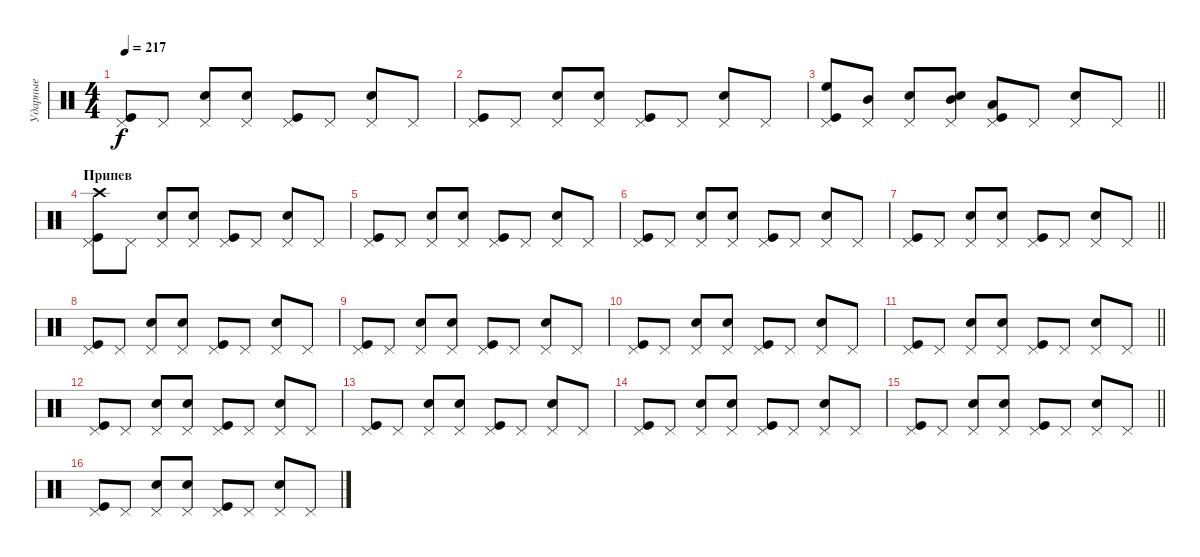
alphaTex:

\track ("Ударные" "Ударные") {instrument percussion}
\staff {score}
\articulation defaults
\ts (4 4)
\tempo 217
\clef neutral
\ks c
("Pedal Hi-Hat (hit)" "Kick (hit)").8{dy f} "Pedal Hi-Hat (hit)".8 ("Pedal Hi-Hat (hit)" "Snare (hit) 2").8 ("Pedal Hi-Hat (hit)" "Snare (hit) 2").8 ("Pedal Hi-Hat (hit)" "Kick (hit)").8 "Pedal Hi-Hat (hit)".8 ("Pedal Hi-Hat (hit)" "Snare (hit) 2").8 "Pedal Hi-Hat (hit)".8 |
("Pedal Hi-Hat (hit)" "Kick (hit)").8 "Pedal Hi-Hat (hit)".8 ("Pedal Hi-Hat (hit)" "Snare (hit) 2").8 ("Pedal Hi-Hat (hit)" "Snare (hit) 2").8 ("Pedal Hi-Hat (hit)" "Kick (hit)").8 "Pedal Hi-Hat (hit)".8 ("Pedal Hi-Hat (hit)" "Snare (hit) 2").8 "Pedal Hi-Hat (hit)".8 |
\barLineRight lightlight
("Pedal Hi-Hat (hit)" "Kick (hit)" "High Floor Tom (hit)").8 ("Pedal Hi-Hat (hit)" "Mid Tom (hit)").8 ("Pedal Hi-Hat (hit)" "Snare (hit) 2").8 ("Pedal Hi-Hat (hit)" "Snare (hit) 2" "Mid Tom (hit)").8 ("Pedal Hi-Hat (hit)" "Kick (hit)" "Low Tom (hit)").8 "Pedal Hi-Hat (hit)".8 ("Pedal Hi-Hat (hit)" "Snare (hit) 2").8 "Pedal Hi-Hat (hit)".8 |
\section ("" "Припев")
("Pedal Hi-Hat (hit)" "Kick (hit)" "Crash high (hit)").8 "Pedal Hi-Hat (hit)".8 ("Pedal Hi-Hat (hit)" "Snare (hit) 2").8 ("Pedal Hi-Hat (hit)" "Snare (hit) 2").8 ("Pedal Hi-Hat (hit)" "Kick (hit)").8 "Pedal Hi-Hat (hit)".8 ("Pedal Hi-Hat (hit)" "Snare (hit) 2").8 "Pedal Hi-Hat (hit)".8 |
("Pedal Hi-Hat (hit)" "Kick (hit)").8 "Pedal Hi-Hat (hit)".8 ("Pedal Hi-Hat (hit)" "Snare (hit) 2").8 ("Pedal Hi-Hat (hit)" "Snare (hit) 2").8 ("Pedal Hi-Hat (hit)" "Kick (hit)").8 "Pedal Hi-Hat (hit)".8 ("Pedal Hi-Hat (hit)" "Snare (hit) 2").8 "Pedal Hi-Hat (hit)".8 |
("Pedal Hi-Hat (hit)" "Kick (hit)").8 "Pedal Hi-Hat (hit)".8 ("Pedal Hi-Hat (hit)" "Snare (hit) 2").8 ("Pedal Hi-Hat (hit)" "Snare (hit) 2").8 ("Pedal Hi-Hat (hit)" "Kick (hit)").8 "Pedal Hi-Hat (hit)".8 ("Pedal Hi-Hat (hit)" "Snare (hit) 2").8 "Pedal Hi-Hat (hit)".8 |
\barLineRight lightlight
("Pedal Hi-Hat (hit)" "Kick (hit)").8 "Pedal Hi-Hat (hit)".8 ("Pedal Hi-Hat (hit)" "Snare (hit) 2").8 ("Pedal Hi-Hat (hit)" "Snare (hit) 2").8 ("Pedal Hi-Hat (hit)" "Kick (hit)").8 "Pedal Hi-Hat (hit)".8 ("Pedal Hi-Hat (hit)" "Snare (hit) 2").8 "Pedal Hi-Hat (hit)".8 |
("Pedal Hi-Hat (hit)" "Kick (hit)").8 "Pedal Hi-Hat (hit)".8 ("Pedal Hi-Hat (hit)" "Snare (hit) 2").8 ("Pedal Hi-Hat (hit)" "Snare (hit) 2").8 ("Pedal Hi-Hat (hit)" "Kick (hit)").8 "Pedal Hi-Hat (hit)".8 ("Pedal Hi-Hat (hit)" "Snare (hit) 2").8 "Pedal Hi-Hat (hit)".8 |
("Pedal Hi-Hat (hit)" "Kick (hit)").8 "Pedal Hi-Hat (hit)".8 ("Pedal Hi-Hat (hit)" "Snare (hit) 2").8 ("Pedal Hi-Hat (hit)" "Snare (hit) 2").8 ("Pedal Hi-Hat (hit)" "Kick (hit)").8 "Pedal Hi-Hat (hit)".8 ("Pedal Hi-Hat (hit)" "Snare (hit) 2").8 "Pedal Hi-Hat (hit)".8 |
("Pedal Hi-Hat (hit)" "Kick (hit)").8 "Pedal Hi-Hat (hit)".8 ("Pedal Hi-Hat (hit)" "Snare (hit) 2").8 ("Pedal Hi-Hat (hit)" "Snare (hit) 2").8 ("Pedal Hi-Hat (hit)" "Kick (hit)").8 "Pedal Hi-Hat (hit)".8 ("Pedal Hi-Hat (hit)" "Snare (hit) 2").8 "Pedal Hi-Hat (hit)".8 |
\barLineRight lightlight
("Pedal Hi-Hat (hit)" "Kick (hit)").8 "Pedal Hi-Hat (hit)".8 ("Pedal Hi-Hat (hit)" "Snare (hit) 2").8 ("Pedal Hi-Hat (hit)" "Snare (hit) 2").8 ("Pedal Hi-Hat (hit)" "Kick (hit)").8 "Pedal Hi-Hat (hit)".8 ("Pedal Hi-Hat (hit)" "Snare (hit) 2").8 "Pedal Hi-Hat (hit)".8 |
("Pedal Hi-Hat (hit)" "Kick (hit)").8 "Pedal Hi-Hat (hit)".8 ("Pedal Hi-Hat (hit)" "Snare (hit) 2").8 ("Pedal Hi-Hat (hit)" "Snare (hit) 2").8 ("Pedal Hi-Hat (hit)" "Kick (hit)").8 "Pedal Hi-Hat (hit)".8 ("Pedal Hi-Hat (hit)" "Snare (hit) 2").8 "Pedal Hi-Hat (hit)".8 |
("Pedal Hi-Hat (hit)" "Kick (hit)").8 "Pedal Hi-Hat (hit)".8 ("Pedal Hi-Hat (hit)" "Snare (hit) 2").8 ("Pedal Hi-Hat (hit)" "Snare (hit) 2").8 ("Pedal Hi-Hat (hit)" "Kick (hit)").8 "Pedal Hi-Hat (hit)".8 ("Pedal Hi-Hat (hit)" "Snare (hit) 2").8 "Pedal Hi-Hat (hit)".8 |
("Pedal Hi-Hat (hit)" "Kick (hit)").8 "Pedal Hi-Hat (hit)".8 ("Pedal Hi-Hat (hit)" "Snare (hit) 2").8 ("Pedal Hi-Hat (hit)" "Snare (hit) 2").8 ("Pedal Hi-Hat (hit)" "Kick (hit)").8 "Pedal Hi-Hat (hit)".8 ("Pedal Hi-Hat (hit)" "Snare (hit) 2").8 "Pedal Hi-Hat (hit)".8 |
\barLineRight lightlight
("Pedal Hi-Hat (hit)" "Kick (hit)").8 "Pedal Hi-Hat (hit)".8 ("Pedal Hi-Hat (hit)" "Snare (hit) 2").8 ("Pedal Hi-Hat (hit)" "Snare (hit) 2").8 ("Pedal Hi-Hat (hit)" "Kick (hit)").8 "Pedal Hi-Hat (hit)".8 ("Pedal Hi-Hat (hit)" "Snare (hit) 2").8 "Pedal Hi-Hat (hit)".8 |
("Pedal Hi-Hat (hit)" "Kick (hit)").8 "Pedal Hi-Hat (hit)".8 ("Pedal Hi-Hat (hit)" "Snare (hit) 2").8 ("Pedal Hi-Hat (hit)" "Snare (hit) 2").8 ("Pedal Hi-Hat (hit)" "Kick (hit)").8 "Pedal Hi-Hat (hit)".8 ("Pedal Hi-Hat (hit)" "Snare (hit) 2").8 "Pedal Hi-Hat (hit)".8
